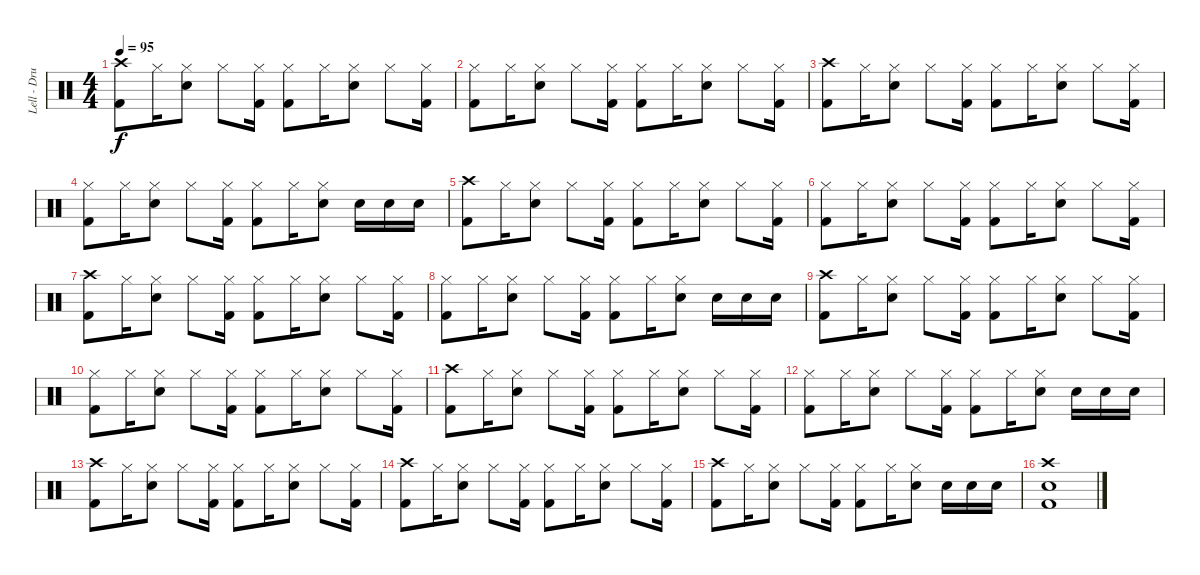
\track ("Lell - Drums" "Lell - Dru") {instrument percussion}
\staff {score}
\articulation defaults
\ts (4 4)
\tempo 95
\clef neutral
\ks c
("Crash high (hit)" "Kick (hit) 2").8{dy f} "Hi-Hat (closed)".16 ("Hi-Hat (closed)" "Snare (hit) 2").8 "Hi-Hat (closed)".8 ("Hi-Hat (closed)" "Kick (hit) 2").16 ("Hi-Hat (closed)" "Kick (hit) 2").8 "Hi-Hat (closed)".16 ("Hi-Hat (closed)" "Snare (hit) 2").8 "Hi-Hat (closed)".8 ("Hi-Hat (closed)" "Kick (hit) 2").16 |
("Hi-Hat (closed)" "Kick (hit) 2").8 "Hi-Hat (closed)".16 ("Hi-Hat (closed)" "Snare (hit) 2").8 "Hi-Hat (closed)".8 ("Hi-Hat (closed)" "Kick (hit) 2").16 ("Hi-Hat (closed)" "Kick (hit) 2").8 "Hi-Hat (closed)".16 ("Hi-Hat (closed)" "Snare (hit) 2").8 "Hi-Hat (closed)".8 ("Hi-Hat (closed)" "Kick (hit) 2").16 |
("Crash high (hit)" "Kick (hit) 2").8 "Hi-Hat (closed)".16 ("Hi-Hat (closed)" "Snare (hit) 2").8 "Hi-Hat (closed)".8 ("Hi-Hat (closed)" "Kick (hit) 2").16 ("Hi-Hat (closed)" "Kick (hit) 2").8 "Hi-Hat (closed)".16 ("Hi-Hat (closed)" "Snare (hit) 2").8 "Hi-Hat (closed)".8 ("Hi-Hat (closed)" "Kick (hit) 2").16 |
("Hi-Hat (closed)" "Kick (hit) 2").8 "Hi-Hat (closed)".16 ("Hi-Hat (closed)" "Snare (hit) 2").8 "Hi-Hat (closed)".8 ("Hi-Hat (closed)" "Kick (hit) 2").16 ("Hi-Hat (closed)" "Kick (hit) 2").8 "Hi-Hat (closed)".16 ("Hi-Hat (closed)" "Snare (hit) 2").8 "Snare (hit) 2".16 "Snare (hit) 2".16 "Snare (hit) 2".16 |
("Crash high (hit)" "Kick (hit) 2").8 "Hi-Hat (closed)".16 ("Hi-Hat (closed)" "Snare (hit) 2").8 "Hi-Hat (closed)".8 ("Hi-Hat (closed)" "Kick (hit) 2").16 ("Hi-Hat (closed)" "Kick (hit) 2").8 "Hi-Hat (closed)".16 ("Hi-Hat (closed)" "Snare (hit) 2").8 "Hi-Hat (closed)".8 ("Hi-Hat (closed)" "Kick (hit) 2").16 |
("Hi-Hat (closed)" "Kick (hit) 2").8 "Hi-Hat (closed)".16 ("Hi-Hat (closed)" "Snare (hit) 2").8 "Hi-Hat (closed)".8 ("Hi-Hat (closed)" "Kick (hit) 2").16 ("Hi-Hat (closed)" "Kick (hit) 2").8 "Hi-Hat (closed)".16 ("Hi-Hat (closed)" "Snare (hit) 2").8 "Hi-Hat (closed)".8 ("Hi-Hat (closed)" "Kick (hit) 2").16 |
("Crash high (hit)" "Kick (hit) 2").8 "Hi-Hat (closed)".16 ("Hi-Hat (closed)" "Snare (hit) 2").8 "Hi-Hat (closed)".8 ("Hi-Hat (closed)" "Kick (hit) 2").16 ("Hi-Hat (closed)" "Kick (hit) 2").8 "Hi-Hat (closed)".16 ("Hi-Hat (closed)" "Snare (hit) 2").8 "Hi-Hat (closed)".8 ("Hi-Hat (closed)" "Kick (hit) 2").16 |
("Hi-Hat (closed)" "Kick (hit) 2").8 "Hi-Hat (closed)".16 ("Hi-Hat (closed)" "Snare (hit) 2").8 "Hi-Hat (closed)".8 ("Hi-Hat (closed)" "Kick (hit) 2").16 ("Hi-Hat (closed)" "Kick (hit) 2").8 "Hi-Hat (closed)".16 ("Hi-Hat (closed)" "Snare (hit) 2").8 "Snare (hit) 2".16 "Snare (hit) 2".16 "Snare (hit) 2".16 |
("Crash high (hit)" "Kick (hit) 2").8 "Hi-Hat (closed)".16 ("Hi-Hat (closed)" "Snare (hit) 2").8 "Hi-Hat (closed)".8 ("Hi-Hat (closed)" "Kick (hit) 2").16 ("Hi-Hat (closed)" "Kick (hit) 2").8 "Hi-Hat (closed)".16 ("Hi-Hat (closed)" "Snare (hit) 2").8 "Hi-Hat (closed)".8 ("Hi-Hat (closed)" "Kick (hit) 2").16 |
("Hi-Hat (closed)" "Kick (hit) 2").8 "Hi-Hat (closed)".16 ("Hi-Hat (closed)" "Snare (hit) 2").8 "Hi-Hat (closed)".8 ("Hi-Hat (closed)" "Kick (hit) 2").16 ("Hi-Hat (closed)" "Kick (hit) 2").8 "Hi-Hat (closed)".16 ("Hi-Hat (closed)" "Snare (hit) 2").8 "Hi-Hat (closed)".8 ("Hi-Hat (closed)" "Kick (hit) 2").16 |
("Crash high (hit)" "Kick (hit) 2").8 "Hi-Hat (closed)".16 ("Hi-Hat (closed)" "Snare (hit) 2").8 "Hi-Hat (closed)".8 ("Hi-Hat (closed)" "Kick (hit) 2").16 ("Hi-Hat (closed)" "Kick (hit) 2").8 "Hi-Hat (closed)".16 ("Hi-Hat (closed)" "Snare (hit) 2").8 "Hi-Hat (closed)".8 ("Hi-Hat (closed)" "Kick (hit) 2").16 |
("Hi-Hat (closed)" "Kick (hit) 2").8 "Hi-Hat (closed)".16 ("Hi-Hat (closed)" "Snare (hit) 2").8 "Hi-Hat (closed)".8 ("Hi-Hat (closed)" "Kick (hit) 2").16 ("Hi-Hat (closed)" "Kick (hit) 2").8 "Hi-Hat (closed)".16 ("Hi-Hat (closed)" "Snare (hit) 2").8 "Snare (hit) 2".16 "Snare (hit) 2".16 "Snare (hit) 2".16 |
("Crash high (hit)" "Kick (hit) 2").8 "Hi-Hat (closed)".16 ("Hi-Hat (closed)" "Snare (hit) 2").8 "Hi-Hat (closed)".8 ("Hi-Hat (closed)" "Kick (hit) 2").16 ("Hi-Hat (closed)" "Kick (hit) 2").8 "Hi-Hat (closed)".16 ("Hi-Hat (closed)" "Snare (hit) 2").8 "Hi-Hat (closed)".8 ("Hi-Hat (closed)" "Kick (hit) 2").16 |
("Crash high (hit)" "Kick (hit) 2").8 "Hi-Hat (closed)".16 ("Hi-Hat (closed)" "Snare (hit) 2").8 "Hi-Hat (closed)".8 ("Hi-Hat (closed)" "Kick (hit) 2").16 ("Hi-Hat (closed)" "Kick (hit) 2").8 "Hi-Hat (closed)".16 ("Hi-Hat (closed)" "Snare (hit) 2").8 "Hi-Hat (closed)".8 ("Hi-Hat (closed)" "Kick (hit) 2").16 |
("Crash high (hit)" "Kick (hit) 2").8 "Hi-Hat (closed)".16 ("Hi-Hat (closed)" "Snare (hit) 2").8 "Hi-Hat (closed)".8 ("Hi-Hat (closed)" "Kick (hit) 2").16 ("Hi-Hat (closed)" "Kick (hit) 2").8 "Hi-Hat (closed)".16 ("Hi-Hat (closed)" "Snare (hit) 2").8 "Snare (hit) 2".16 "Snare (hit) 2".16 "Snare (hit) 2".16 |
("Crash high (hit)" "Snare (hit) 2" "Kick (hit) 2").1
